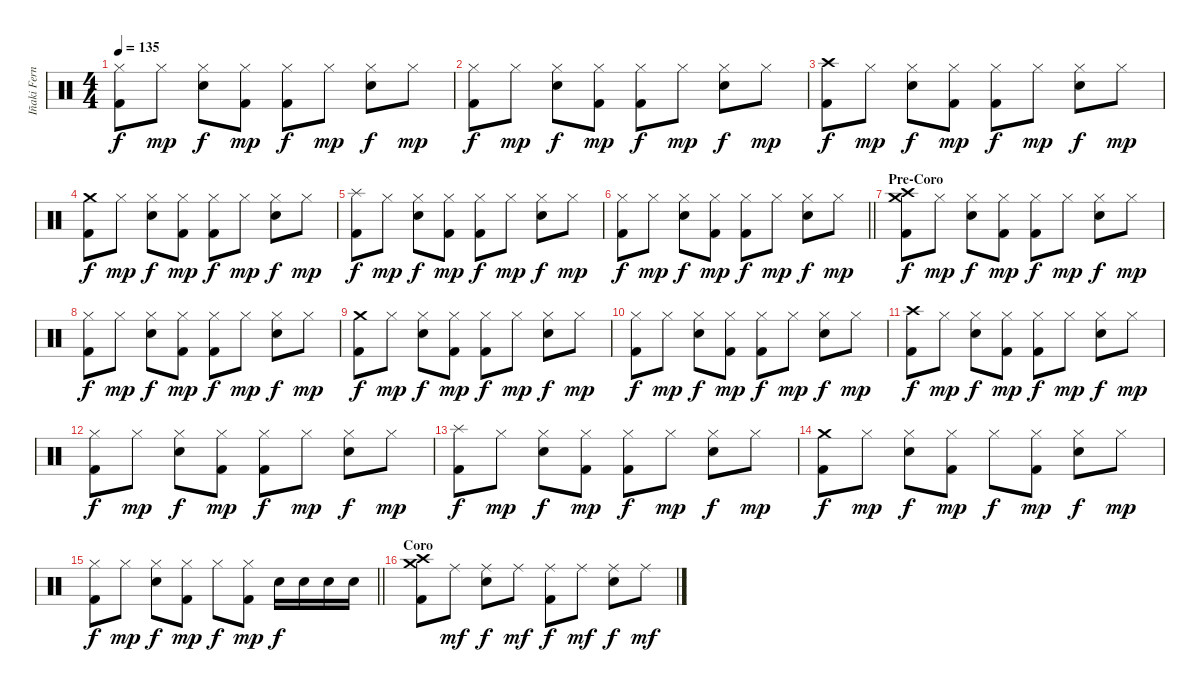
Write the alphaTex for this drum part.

\track ("Iñaki Fernández" "Iñaki Fern") {instrument percussion}
\staff {score}
\articulation defaults
\ts (4 4)
\tempo 135
\clef neutral
\ks c
("Hi-Hat (closed)" "Kick (hit) 2").8{dy f} "Hi-Hat (closed)".8{dy mp} ("Hi-Hat (closed)" "Snare (hit) 2").8{dy f} ("Hi-Hat (closed)" "Kick (hit) 2").8{dy mp} ("Hi-Hat (closed)" "Kick (hit) 2").8{dy f} "Hi-Hat (closed)".8{dy mp} ("Hi-Hat (closed)" "Snare (hit) 2").8{dy f} "Hi-Hat (closed)".8{dy mp} |
("Hi-Hat (closed)" "Kick (hit) 2").8{dy f} "Hi-Hat (closed)".8{dy mp} ("Hi-Hat (closed)" "Snare (hit) 2").8{dy f} ("Hi-Hat (closed)" "Kick (hit) 2").8{dy mp} ("Hi-Hat (closed)" "Kick (hit) 2").8{dy f} "Hi-Hat (closed)".8{dy mp} ("Hi-Hat (closed)" "Snare (hit) 2").8{dy f} "Hi-Hat (closed)".8{dy mp} |
("Crash high (hit)" "Kick (hit) 2").8{dy f} "Hi-Hat (closed)".8{dy mp} ("Hi-Hat (closed)" "Snare (hit) 2").8{dy f} ("Hi-Hat (closed)" "Kick (hit) 2").8{dy mp} ("Hi-Hat (closed)" "Kick (hit) 2").8{dy f} "Hi-Hat (closed)".8{dy mp} ("Hi-Hat (closed)" "Snare (hit) 2").8{dy f} "Hi-Hat (closed)".8{dy mp} |
("Crash medium (hit)" "Kick (hit) 2").8{dy f} "Hi-Hat (closed)".8{dy mp} ("Hi-Hat (closed)" "Snare (hit) 2").8{dy f} ("Hi-Hat (closed)" "Kick (hit) 2").8{dy mp} ("Hi-Hat (closed)" "Kick (hit) 2").8{dy f} "Hi-Hat (closed)".8{dy mp} ("Hi-Hat (closed)" "Snare (hit) 2").8{dy f} "Hi-Hat (closed)".8{dy mp} |
("Splash (hit)" "Kick (hit) 2").8{dy f} "Hi-Hat (closed)".8{dy mp} ("Hi-Hat (closed)" "Snare (hit) 2").8{dy f} ("Hi-Hat (closed)" "Kick (hit) 2").8{dy mp} ("Hi-Hat (closed)" "Kick (hit) 2").8{dy f} "Hi-Hat (closed)".8{dy mp} ("Hi-Hat (closed)" "Snare (hit) 2").8{dy f} "Hi-Hat (closed)".8{dy mp} |
\barLineRight lightlight
("Hi-Hat (closed)" "Kick (hit) 2").8{dy f} "Hi-Hat (closed)".8{dy mp} ("Hi-Hat (closed)" "Snare (hit) 2").8{dy f} ("Hi-Hat (closed)" "Kick (hit) 2").8{dy mp} ("Hi-Hat (closed)" "Kick (hit) 2").8{dy f} "Hi-Hat (closed)".8{dy mp} ("Hi-Hat (closed)" "Snare (hit) 2").8{dy f} "Hi-Hat (closed)".8{dy mp} |
\section ("" "Pre-Coro")
("Crash medium (hit)" "Crash high (hit)" "Kick (hit) 2").8{dy f} "Hi-Hat (closed)".8{dy mp} ("Hi-Hat (closed)" "Snare (hit) 2").8{dy f} ("Hi-Hat (closed)" "Kick (hit) 2").8{dy mp} ("Hi-Hat (closed)" "Kick (hit) 2").8{dy f} "Hi-Hat (closed)".8{dy mp} ("Hi-Hat (closed)" "Snare (hit) 2").8{dy f} "Hi-Hat (closed)".8{dy mp} |
("Hi-Hat (closed)" "Kick (hit) 2").8{dy f} "Hi-Hat (closed)".8{dy mp} ("Hi-Hat (closed)" "Snare (hit) 2").8{dy f} ("Hi-Hat (closed)" "Kick (hit) 2").8{dy mp} ("Hi-Hat (closed)" "Kick (hit) 2").8{dy f} "Hi-Hat (closed)".8{dy mp} ("Hi-Hat (closed)" "Snare (hit) 2").8{dy f} "Hi-Hat (closed)".8{dy mp} |
("Crash medium (hit)" "Kick (hit) 2").8{dy f} "Hi-Hat (closed)".8{dy mp} ("Hi-Hat (closed)" "Snare (hit) 2").8{dy f} ("Hi-Hat (closed)" "Kick (hit) 2").8{dy mp} ("Hi-Hat (closed)" "Kick (hit) 2").8{dy f} "Hi-Hat (closed)".8{dy mp} ("Hi-Hat (closed)" "Snare (hit) 2").8{dy f} "Hi-Hat (closed)".8{dy mp} |
("Hi-Hat (closed)" "Kick (hit) 2").8{dy f} "Hi-Hat (closed)".8{dy mp} ("Hi-Hat (closed)" "Snare (hit) 2").8{dy f} ("Hi-Hat (closed)" "Kick (hit) 2").8{dy mp} ("Hi-Hat (closed)" "Kick (hit) 2").8{dy f} "Hi-Hat (closed)".8{dy mp} ("Hi-Hat (closed)" "Snare (hit) 2").8{dy f} "Hi-Hat (closed)".8{dy mp} |
("Crash high (hit)" "Kick (hit) 2").8{dy f} "Hi-Hat (closed)".8{dy mp} ("Hi-Hat (closed)" "Snare (hit) 2").8{dy f} ("Hi-Hat (closed)" "Kick (hit) 2").8{dy mp} ("Hi-Hat (closed)" "Kick (hit) 2").8{dy f} "Hi-Hat (closed)".8{dy mp} ("Hi-Hat (closed)" "Snare (hit) 2").8{dy f} "Hi-Hat (closed)".8{dy mp} |
("Hi-Hat (closed)" "Kick (hit) 2").8{dy f} "Hi-Hat (closed)".8{dy mp} ("Hi-Hat (closed)" "Snare (hit) 2").8{dy f} ("Hi-Hat (closed)" "Kick (hit) 2").8{dy mp} ("Hi-Hat (closed)" "Kick (hit) 2").8{dy f} "Hi-Hat (closed)".8{dy mp} ("Hi-Hat (closed)" "Snare (hit) 2").8{dy f} "Hi-Hat (closed)".8{dy mp} |
("Splash (hit)" "Kick (hit) 2").8{dy f} "Hi-Hat (closed)".8{dy mp} ("Hi-Hat (closed)" "Snare (hit) 2").8{dy f} ("Hi-Hat (closed)" "Kick (hit) 2").8{dy mp} ("Hi-Hat (closed)" "Kick (hit) 2").8{dy f} "Hi-Hat (closed)".8{dy mp} ("Hi-Hat (closed)" "Snare (hit) 2").8{dy f} "Hi-Hat (closed)".8{dy mp} |
("Crash medium (hit)" "Kick (hit) 2").8{dy f} "Hi-Hat (closed)".8{dy mp} ("Hi-Hat (closed)" "Snare (hit) 2").8{dy f} ("Hi-Hat (closed)" "Kick (hit) 2").8{dy mp} "Hi-Hat (closed)".8{dy f} ("Hi-Hat (closed)" "Kick (hit) 2").8{dy mp} ("Hi-Hat (closed)" "Snare (hit) 2").8{dy f} "Hi-Hat (closed)".8{dy mp} |
\barLineRight lightlight
("Hi-Hat (closed)" "Kick (hit) 2").8{dy f} "Hi-Hat (closed)".8{dy mp} ("Hi-Hat (closed)" "Snare (hit) 2").8{dy f} ("Hi-Hat (closed)" "Kick (hit) 2").8{dy mp} "Hi-Hat (closed)".8{dy f} ("Hi-Hat (closed)" "Kick (hit) 2").8{dy mp} "Snare (hit) 2".16{dy f} "Snare (hit) 2".16 "Snare (hit) 2".16 "Snare (hit) 2".16 |
\section ("" "Coro")
("Crash medium (hit)" "Crash high (hit)" "Kick (hit) 2").8 "Ride (middle)".8{dy mf} ("Ride (middle)" "Snare (hit) 2").8{dy f} "Ride (middle)".8{dy mf} ("Ride (middle)" "Kick (hit) 2").8{dy f} "Ride (middle)".8{dy mf} ("Ride (middle)" "Snare (hit) 2").8{dy f} "Ride (middle)".8{dy mf}
